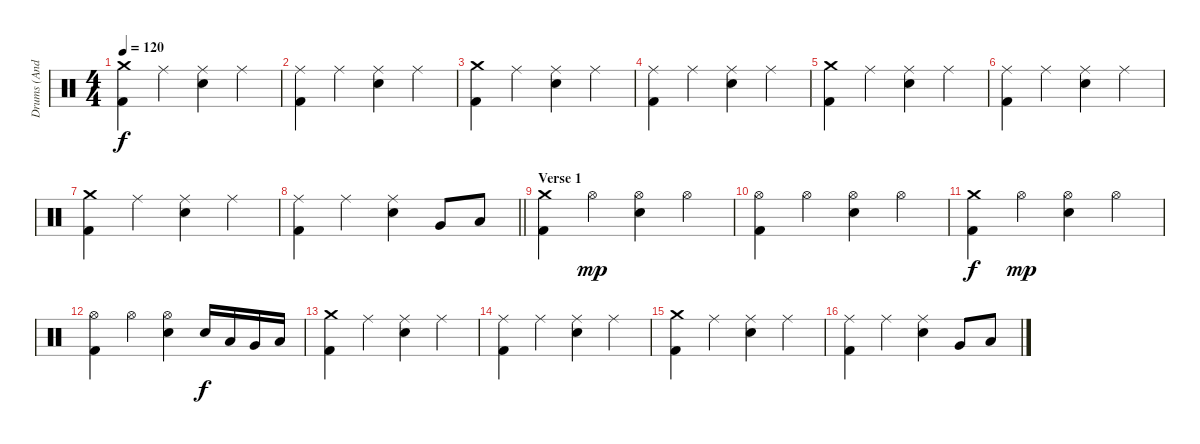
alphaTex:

\track ("Drums (Andy C)" "Drums (And") {instrument percussion}
\staff
\articulation defaults
\ts (4 4)
\tempo 120
\clef neutral
\ks c
("Crash medium (hit)" "Kick (hit) 2").4{dy f} "Ride (middle)".4 ("Ride (middle)" "Electric Snare (hit)").4 "Ride (middle)".4 |
("Ride (middle)" "Kick (hit) 2").4 "Ride (middle)".4 ("Ride (middle)" "Electric Snare (hit)").4 "Ride (middle)".4 |
("Crash medium (hit)" "Kick (hit) 2").4 "Ride (middle)".4 ("Ride (middle)" "Electric Snare (hit)").4 "Ride (middle)".4 |
("Ride (middle)" "Kick (hit) 2").4 "Ride (middle)".4 ("Ride (middle)" "Electric Snare (hit)").4 "Ride (middle)".4 |
("Crash medium (hit)" "Kick (hit) 2").4 "Ride (middle)".4 ("Ride (middle)" "Electric Snare (hit)").4 "Ride (middle)".4 |
("Ride (middle)" "Kick (hit) 2").4 "Ride (middle)".4 ("Ride (middle)" "Electric Snare (hit)").4 "Ride (middle)".4 |
("Crash medium (hit)" "Kick (hit) 2").4 "Ride (middle)".4 ("Ride (middle)" "Electric Snare (hit)").4 "Ride (middle)".4 |
\barLineRight lightlight
("Ride (middle)" "Kick (hit) 2").4 "Ride (middle)".4 ("Ride (middle)" "Electric Snare (hit)").4 "Very Low Tom (hit)".8 "Low Tom (hit)".8 |
\section ("" "Verse 1")
("Crash medium (hit)" "Kick (hit) 2").4 "Hi-Hat (open)".4{dy mp} ("Hi-Hat (open)" "Electric Snare (hit)").4 "Hi-Hat (open)".4 |
("Hi-Hat (open)" "Kick (hit) 2").4 "Hi-Hat (open)".4 ("Hi-Hat (open)" "Electric Snare (hit)").4 "Hi-Hat (open)".4 |
("Crash medium (hit)" "Kick (hit) 2").4{dy f} "Hi-Hat (open)".4{dy mp} ("Hi-Hat (open)" "Electric Snare (hit)").4 "Hi-Hat (open)".4 |
("Hi-Hat (open)" "Kick (hit) 2").4 "Hi-Hat (open)".4 ("Hi-Hat (open)" "Electric Snare (hit)").4 "Electric Snare (hit)".16{dy f} "Low Tom (hit)".16 "Very Low Tom (hit)".16 "Low Floor Tom (hit)".16 |
("Crash medium (hit)" "Kick (hit) 2").4 "Ride (middle)".4 ("Ride (middle)" "Electric Snare (hit)").4 "Ride (middle)".4 |
("Ride (middle)" "Kick (hit) 2").4 "Ride (middle)".4 ("Ride (middle)" "Electric Snare (hit)").4 "Ride (middle)".4 |
("Crash medium (hit)" "Kick (hit) 2").4 "Ride (middle)".4 ("Ride (middle)" "Electric Snare (hit)").4 "Ride (middle)".4 |
("Ride (middle)" "Kick (hit) 2").4 "Ride (middle)".4 ("Ride (middle)" "Electric Snare (hit)").4 "Very Low Tom (hit)".8 "Low Tom (hit)".8
